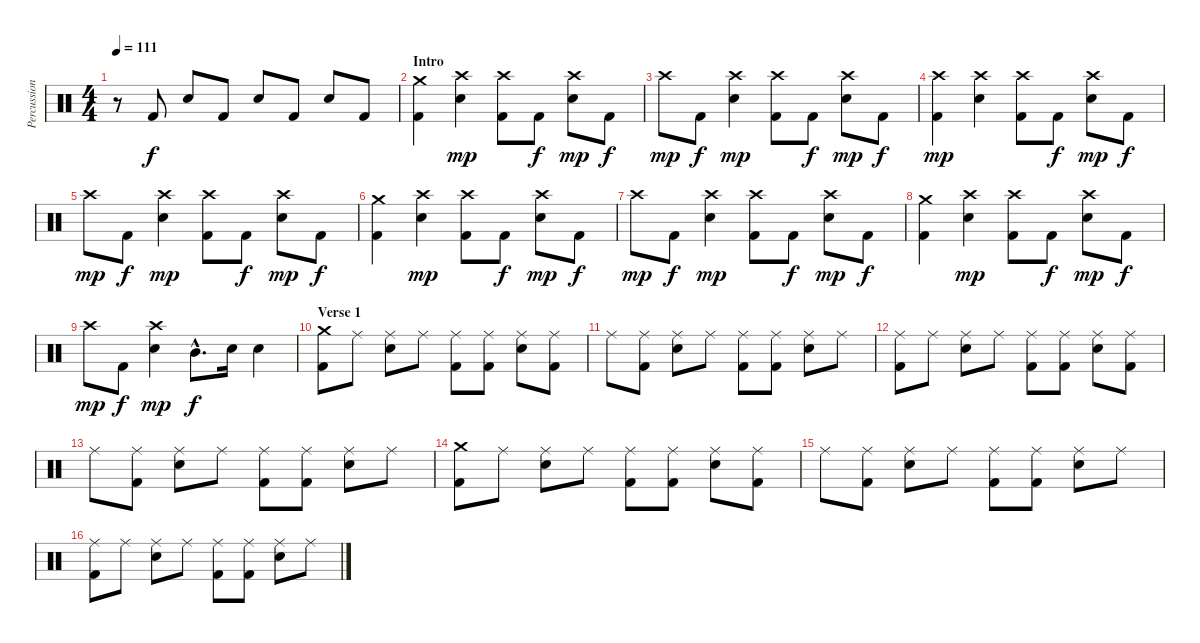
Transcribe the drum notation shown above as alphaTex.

\track ("Percussion" "Percussion") {instrument percussion}
\staff {score}
\articulation defaults
\ts (4 4)
\tempo 111
\clef neutral
\ks c
r.8{dy f} "Kick (hit) 2".8 "Electric Snare (hit)".8 "Kick (hit) 2".8 "Electric Snare (hit)".8 "Kick (hit) 2".8 "Electric Snare (hit)".8 "Kick (hit) 2".8 |
\section ("" "Intro")
("Crash medium (hit)" "Kick (hit) 2").4 ("Crash high (hit)" "Electric Snare (hit)").4{dy mp} ("Crash high (hit)" "Kick (hit) 2").8 "Kick (hit) 2".8{dy f} ("Crash high (hit)" "Electric Snare (hit)").8{dy mp} "Kick (hit) 2".8{dy f} |
"Crash high (hit)".8{dy mp} "Kick (hit) 2".8{dy f} ("Crash high (hit)" "Electric Snare (hit)").4{dy mp} ("Crash high (hit)" "Kick (hit) 2").8 "Kick (hit) 2".8{dy f} ("Crash high (hit)" "Electric Snare (hit)").8{dy mp} "Kick (hit) 2".8{dy f} |
("Crash high (hit)" "Kick (hit) 2").4{dy mp} ("Crash high (hit)" "Electric Snare (hit)").4 ("Crash high (hit)" "Kick (hit) 2").8 "Kick (hit) 2".8{dy f} ("Crash high (hit)" "Electric Snare (hit)").8{dy mp} "Kick (hit) 2".8{dy f} |
"Crash high (hit)".8{dy mp} "Kick (hit) 2".8{dy f} ("Crash high (hit)" "Electric Snare (hit)").4{dy mp} ("Crash high (hit)" "Kick (hit) 2").8 "Kick (hit) 2".8{dy f} ("Crash high (hit)" "Electric Snare (hit)").8{dy mp} "Kick (hit) 2".8{dy f} |
("Crash medium (hit)" "Kick (hit) 2").4 ("Crash high (hit)" "Electric Snare (hit)").4{dy mp} ("Crash high (hit)" "Kick (hit) 2").8 "Kick (hit) 2".8{dy f} ("Crash high (hit)" "Electric Snare (hit)").8{dy mp} "Kick (hit) 2".8{dy f} |
"Crash high (hit)".8{dy mp} "Kick (hit) 2".8{dy f} ("Crash high (hit)" "Electric Snare (hit)").4{dy mp} ("Crash high (hit)" "Kick (hit) 2").8 "Kick (hit) 2".8{dy f} ("Crash high (hit)" "Electric Snare (hit)").8{dy mp} "Kick (hit) 2".8{dy f} |
("Crash medium (hit)" "Kick (hit) 2").4 ("Crash high (hit)" "Electric Snare (hit)").4{dy mp} ("Crash high (hit)" "Kick (hit) 2").8 "Kick (hit) 2".8{dy f} ("Crash high (hit)" "Electric Snare (hit)").8{dy mp} "Kick (hit) 2".8{dy f} |
"Crash high (hit)".8{dy mp} "Kick (hit) 2".8{dy f} ("Crash high (hit)" "Electric Snare (hit)").4{dy mp} "Mid Tom (hit)"{hac}.8{d dy f} "Electric Snare (hit)".16 "Electric Snare (hit)".4 |
\section ("" "Verse 1")
("Crash medium (hit)" "Kick (hit) 2").8 "Ride (middle)".8 ("Ride (middle)" "Electric Snare (hit)").8 "Ride (middle)".8 ("Ride (middle)" "Kick (hit) 2").8 ("Ride (middle)" "Kick (hit) 2").8 ("Ride (middle)" "Electric Snare (hit)").8 ("Ride (middle)" "Kick (hit) 2").8 |
"Ride (middle)".8 ("Ride (middle)" "Kick (hit) 2").8 ("Ride (middle)" "Electric Snare (hit)").8 "Ride (middle)".8 ("Ride (middle)" "Kick (hit) 2").8 ("Ride (middle)" "Kick (hit) 2").8 ("Ride (middle)" "Electric Snare (hit)").8 "Ride (middle)".8 |
("Ride (middle)" "Kick (hit) 2").8 "Ride (middle)".8 ("Ride (middle)" "Electric Snare (hit)").8 "Ride (middle)".8 ("Ride (middle)" "Kick (hit) 2").8 ("Ride (middle)" "Kick (hit) 2").8 ("Ride (middle)" "Electric Snare (hit)").8 ("Ride (middle)" "Kick (hit) 2").8 |
"Ride (middle)".8 ("Ride (middle)" "Kick (hit) 2").8 ("Ride (middle)" "Electric Snare (hit)").8 "Ride (middle)".8 ("Ride (middle)" "Kick (hit) 2").8 ("Ride (middle)" "Kick (hit) 2").8 ("Ride (middle)" "Electric Snare (hit)").8 "Ride (middle)".8 |
("Crash medium (hit)" "Kick (hit) 2").8 "Ride (middle)".8 ("Ride (middle)" "Electric Snare (hit)").8 "Ride (middle)".8 ("Ride (middle)" "Kick (hit) 2").8 ("Ride (middle)" "Kick (hit) 2").8 ("Ride (middle)" "Electric Snare (hit)").8 ("Ride (middle)" "Kick (hit) 2").8 |
"Ride (middle)".8 ("Ride (middle)" "Kick (hit) 2").8 ("Ride (middle)" "Electric Snare (hit)").8 "Ride (middle)".8 ("Ride (middle)" "Kick (hit) 2").8 ("Ride (middle)" "Kick (hit) 2").8 ("Ride (middle)" "Electric Snare (hit)").8 "Ride (middle)".8 |
("Ride (middle)" "Kick (hit) 2").8 "Ride (middle)".8 ("Ride (middle)" "Electric Snare (hit)").8 "Ride (middle)".8 ("Ride (middle)" "Kick (hit) 2").8 ("Ride (middle)" "Kick (hit) 2").8 ("Ride (middle)" "Electric Snare (hit)").8 "Ride (middle)".8
